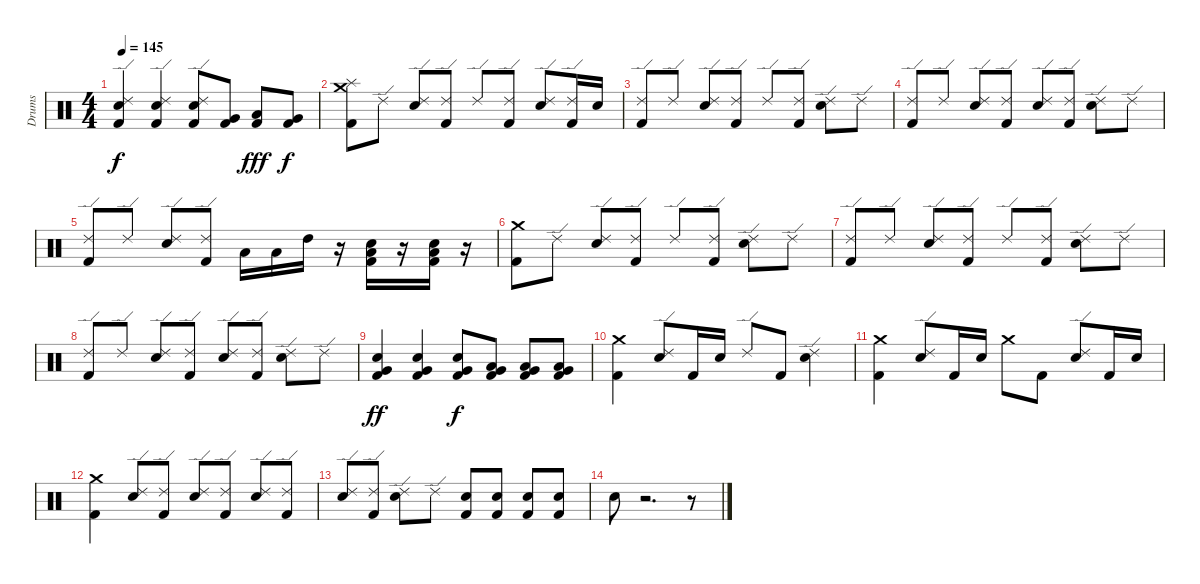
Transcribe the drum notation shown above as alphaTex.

\track ("Drums" "Drums") {instrument percussion}
\staff {score}
\articulation defaults
\ts (4 4)
\tempo 145
\clef neutral
\ks c
("Ride (edge) 2" "Electric Snare (hit)" "Kick (hit) 2").4{dy f} ("Ride (edge) 2" "Electric Snare (hit)" "Kick (hit) 2").4 ("Ride (edge) 2" "Electric Snare (hit)" "Kick (hit) 2").8 ("Very Low Tom (hit)" "Kick (hit) 2").8 ("Low Tom (hit)" "Kick (hit) 2").8{dy fff} ("Very Low Tom (hit)" "Kick (hit) 2").8{dy f} |
("Crash medium (hit)" "Splash (hit)" "Kick (hit) 2").8 "Ride (edge) 2".8 ("Ride (edge) 2" "Electric Snare (hit)").8 ("Ride (edge) 2" "Kick (hit) 2").8 "Ride (edge) 2".8 ("Ride (edge) 2" "Kick (hit) 2").8 ("Ride (edge) 2" "Electric Snare (hit)").8 ("Ride (edge) 2" "Kick (hit) 2").16 "Electric Snare (hit)".16 |
("Ride (edge) 2" "Kick (hit) 2").8 "Ride (edge) 2".8 ("Ride (edge) 2" "Electric Snare (hit)").8 ("Ride (edge) 2" "Kick (hit) 2").8 "Ride (edge) 2".8 ("Ride (edge) 2" "Kick (hit) 2").8 ("Ride (edge) 2" "Electric Snare (hit)").8 "Ride (edge) 2".8 |
("Ride (edge) 2" "Kick (hit) 2").8 "Ride (edge) 2".8 ("Ride (edge) 2" "Electric Snare (hit)").8 ("Ride (edge) 2" "Kick (hit) 2").8 ("Ride (edge) 2" "Electric Snare (hit)").8 ("Ride (edge) 2" "Kick (hit) 2").8 ("Ride (edge) 2" "Electric Snare (hit)").8 "Ride (edge) 2".8 |
("Ride (edge) 2" "Kick (hit) 2").8 "Ride (edge) 2".8 ("Ride (edge) 2" "Electric Snare (hit)").8 ("Ride (edge) 2" "Kick (hit) 2").8 "Low Tom (hit)".16 "Low Tom (hit)".16 "High Tom (hit)".16 r.16 ("Electric Snare (hit)" "Low Tom (hit)" "Kick (hit) 2").16 r.16 ("Electric Snare (hit)" "Low Tom (hit)" "Kick (hit) 2").16 r.16 |
("Crash medium (hit)" "Kick (hit) 2").8 "Ride (edge) 2".8 ("Ride (edge) 2" "Electric Snare (hit)").8 ("Ride (edge) 2" "Kick (hit) 2").8 "Ride (edge) 2".8 ("Ride (edge) 2" "Kick (hit) 2").8 ("Ride (edge) 2" "Electric Snare (hit)").8 "Ride (edge) 2".8 |
("Ride (edge) 2" "Kick (hit) 2").8 "Ride (edge) 2".8 ("Ride (edge) 2" "Electric Snare (hit)").8 ("Ride (edge) 2" "Kick (hit) 2").8 "Ride (edge) 2".8 ("Ride (edge) 2" "Kick (hit) 2").8 ("Ride (edge) 2" "Electric Snare (hit)").8 "Ride (edge) 2".8 |
("Ride (edge) 2" "Kick (hit) 2").8 "Ride (edge) 2".8 ("Ride (edge) 2" "Electric Snare (hit)").8 ("Ride (edge) 2" "Kick (hit) 2").8 ("Ride (edge) 2" "Electric Snare (hit)").8 ("Ride (edge) 2" "Kick (hit) 2").8 ("Ride (edge) 2" "Electric Snare (hit)").8 "Ride (edge) 2".8 |
("Electric Snare (hit)" "Very Low Tom (hit)" "Kick (hit) 2").4{dy ff} ("Electric Snare (hit)" "Very Low Tom (hit)" "Kick (hit) 2").4 ("Electric Snare (hit)" "Very Low Tom (hit)" "Kick (hit) 2").8{dy f} ("Low Tom (hit)" "Very Low Tom (hit)" "Kick (hit) 2").8 ("Low Tom (hit)" "Very Low Tom (hit)" "Kick (hit) 2").8 ("Low Tom (hit)" "Very Low Tom (hit)" "Kick (hit) 2").8 |
("Crash medium (hit)" "Kick (hit) 2").4 ("Ride (edge) 2" "Electric Snare (hit)").8 "Kick (hit) 2".16 "Electric Snare (hit)".16 "Ride (edge) 2".8 "Kick (hit) 2".8 ("Ride (edge) 2" "Electric Snare (hit)").4 |
("Crash medium (hit)" "Kick (hit) 2").4 ("Ride (edge) 2" "Electric Snare (hit)").8 "Kick (hit) 2".16 "Electric Snare (hit)".16 "Crash medium (hit)".8 "Kick (hit) 2".8 ("Ride (edge) 2" "Electric Snare (hit)").8 "Kick (hit) 2".16 "Electric Snare (hit)".16 |
("Crash medium (hit)" "Kick (hit) 2").4 ("Ride (edge) 2" "Electric Snare (hit)").8 ("Ride (edge) 2" "Kick (hit) 2").8 ("Ride (edge) 2" "Electric Snare (hit)").8 ("Ride (edge) 2" "Kick (hit) 2").8 ("Ride (edge) 2" "Electric Snare (hit)").8 ("Ride (edge) 2" "Kick (hit) 2").8 |
("Ride (edge) 2" "Electric Snare (hit)").8 ("Ride (edge) 2" "Kick (hit) 2").8 ("Ride (edge) 2" "Electric Snare (hit)").8 "Ride (edge) 2".8 ("Electric Snare (hit)" "Kick (hit) 2").8 ("Electric Snare (hit)" "Kick (hit) 2").8 ("Electric Snare (hit)" "Kick (hit) 2").8 ("Electric Snare (hit)" "Kick (hit) 2").8 |
"Electric Snare (hit)".8 r.2{d} r.8
